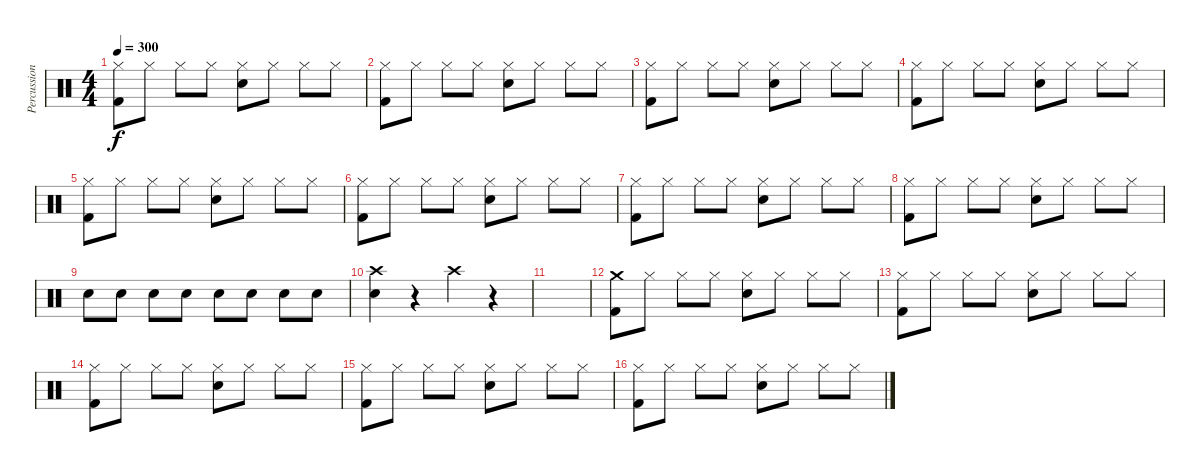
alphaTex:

\track ("Percussion" "Percussion") {instrument percussion}
\staff {score}
\articulation defaults
\ts (4 4)
\tempo 300
\clef neutral
\ks c
("Kick (hit) 2" "Hi-Hat (closed)").8{dy f} "Hi-Hat (closed)".8 "Hi-Hat (closed)".8 "Hi-Hat (closed)".8 ("Snare (hit) 2" "Hi-Hat (closed)").8 "Hi-Hat (closed)".8 "Hi-Hat (closed)".8 "Hi-Hat (closed)".8 |
("Kick (hit) 2" "Hi-Hat (closed)").8 "Hi-Hat (closed)".8 "Hi-Hat (closed)".8 "Hi-Hat (closed)".8 ("Snare (hit) 2" "Hi-Hat (closed)").8 "Hi-Hat (closed)".8 "Hi-Hat (closed)".8 "Hi-Hat (closed)".8 |
("Kick (hit) 2" "Hi-Hat (closed)").8 "Hi-Hat (closed)".8 "Hi-Hat (closed)".8 "Hi-Hat (closed)".8 ("Snare (hit) 2" "Hi-Hat (closed)").8 "Hi-Hat (closed)".8 "Hi-Hat (closed)".8 "Hi-Hat (closed)".8 |
("Kick (hit) 2" "Hi-Hat (closed)").8 "Hi-Hat (closed)".8 "Hi-Hat (closed)".8 "Hi-Hat (closed)".8 ("Snare (hit) 2" "Hi-Hat (closed)").8 "Hi-Hat (closed)".8 "Hi-Hat (closed)".8 "Hi-Hat (closed)".8 |
("Kick (hit) 2" "Hi-Hat (closed)").8 "Hi-Hat (closed)".8 "Hi-Hat (closed)".8 "Hi-Hat (closed)".8 ("Snare (hit) 2" "Hi-Hat (closed)").8 "Hi-Hat (closed)".8 "Hi-Hat (closed)".8 "Hi-Hat (closed)".8 |
("Kick (hit) 2" "Hi-Hat (closed)").8 "Hi-Hat (closed)".8 "Hi-Hat (closed)".8 "Hi-Hat (closed)".8 ("Snare (hit) 2" "Hi-Hat (closed)").8 "Hi-Hat (closed)".8 "Hi-Hat (closed)".8 "Hi-Hat (closed)".8 |
("Kick (hit) 2" "Hi-Hat (closed)").8 "Hi-Hat (closed)".8 "Hi-Hat (closed)".8 "Hi-Hat (closed)".8 ("Snare (hit) 2" "Hi-Hat (closed)").8 "Hi-Hat (closed)".8 "Hi-Hat (closed)".8 "Hi-Hat (closed)".8 |
("Kick (hit) 2" "Hi-Hat (closed)").8 "Hi-Hat (closed)".8 "Hi-Hat (closed)".8 "Hi-Hat (closed)".8 ("Snare (hit) 2" "Hi-Hat (closed)").8 "Hi-Hat (closed)".8 "Hi-Hat (closed)".8 "Hi-Hat (closed)".8 |
"Snare (hit) 2".8 "Snare (hit) 2".8 "Snare (hit) 2".8 "Snare (hit) 2".8 "Snare (hit) 2".8 "Snare (hit) 2".8 "Snare (hit) 2".8 "Snare (hit) 2".8 |
("Snare (hit) 2" "Crash high (hit)").4 r.4 "Crash high (hit)".4 r.4 |
|
("Crash medium (hit)" "Kick (hit) 2").8 "Hi-Hat (closed)".8 "Hi-Hat (closed)".8 "Hi-Hat (closed)".8 ("Snare (hit) 2" "Hi-Hat (closed)").8 "Hi-Hat (closed)".8 "Hi-Hat (closed)".8 "Hi-Hat (closed)".8 |
("Kick (hit) 2" "Hi-Hat (closed)").8 "Hi-Hat (closed)".8 "Hi-Hat (closed)".8 "Hi-Hat (closed)".8 ("Snare (hit) 2" "Hi-Hat (closed)").8 "Hi-Hat (closed)".8 "Hi-Hat (closed)".8 "Hi-Hat (closed)".8 |
("Kick (hit) 2" "Hi-Hat (closed)").8 "Hi-Hat (closed)".8 "Hi-Hat (closed)".8 "Hi-Hat (closed)".8 ("Snare (hit) 2" "Hi-Hat (closed)").8 "Hi-Hat (closed)".8 "Hi-Hat (closed)".8 "Hi-Hat (closed)".8 |
("Kick (hit) 2" "Hi-Hat (closed)").8 "Hi-Hat (closed)".8 "Hi-Hat (closed)".8 "Hi-Hat (closed)".8 ("Snare (hit) 2" "Hi-Hat (closed)").8 "Hi-Hat (closed)".8 "Hi-Hat (closed)".8 "Hi-Hat (closed)".8 |
("Kick (hit) 2" "Hi-Hat (closed)").8 "Hi-Hat (closed)".8 "Hi-Hat (closed)".8 "Hi-Hat (closed)".8 ("Snare (hit) 2" "Hi-Hat (closed)").8 "Hi-Hat (closed)".8 "Hi-Hat (closed)".8 "Hi-Hat (closed)".8
